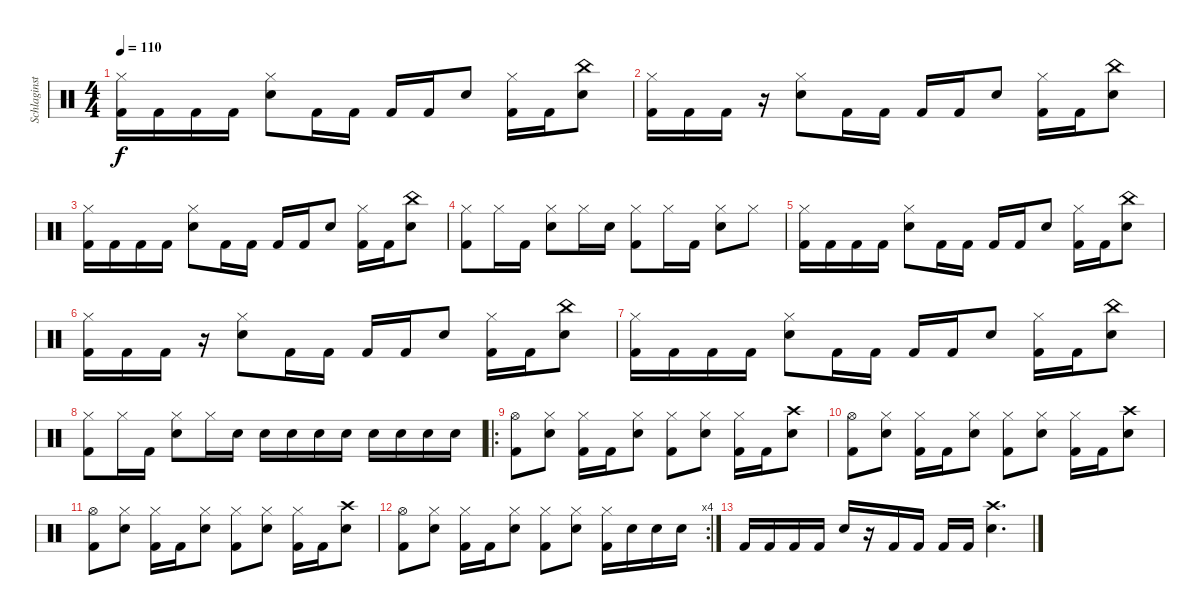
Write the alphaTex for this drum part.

\track ("Schlaginstrumente - Auswahl" "Schlaginst") {instrument percussion}
\staff {score}
\articulation defaults
\ts (4 4)
\tempo 110
\clef neutral
\ks c
("Hi-Hat (closed)" "Kick (hit) 2").16{dy f} "Kick (hit) 2".16 "Kick (hit) 2".16 "Kick (hit) 2".16 ("Hi-Hat (closed)" "Snare (hit) 2").8 "Kick (hit) 2".16 "Kick (hit) 2".16 "Kick (hit) 2".16 "Kick (hit) 2".16 "Snare (hit) 2".8 ("Hi-Hat (closed)" "Kick (hit) 2").16 "Kick (hit) 2".16 ("China (hit)" "Snare (hit) 2").8 |
("Hi-Hat (closed)" "Kick (hit) 2").16 "Kick (hit) 2".16 "Kick (hit) 2".16 r.16 ("Hi-Hat (closed)" "Snare (hit) 2").8 "Kick (hit) 2".16 "Kick (hit) 2".16 "Kick (hit) 2".16 "Kick (hit) 2".16 "Snare (hit) 2".8 ("Hi-Hat (closed)" "Kick (hit) 2").16 "Kick (hit) 2".16 ("China (hit)" "Snare (hit) 2").8 |
("Hi-Hat (closed)" "Kick (hit) 2").16 "Kick (hit) 2".16 "Kick (hit) 2".16 "Kick (hit) 2".16 ("Hi-Hat (closed)" "Snare (hit) 2").8 "Kick (hit) 2".16 "Kick (hit) 2".16 "Kick (hit) 2".16 "Kick (hit) 2".16 "Snare (hit) 2".8 ("Hi-Hat (closed)" "Kick (hit) 2").16 "Kick (hit) 2".16 ("China (hit)" "Snare (hit) 2").8 |
("Hi-Hat (closed)" "Kick (hit) 2").8 "Hi-Hat (closed)".16 "Kick (hit) 2".16 ("Hi-Hat (closed)" "Snare (hit) 2").8 "Hi-Hat (closed)".16 "Snare (hit) 2".16 ("Hi-Hat (closed)" "Kick (hit) 2").8 "Hi-Hat (closed)".16 "Kick (hit) 2".16 ("Hi-Hat (closed)" "Snare (hit) 2").8 "Hi-Hat (closed)".8 |
("Hi-Hat (closed)" "Kick (hit) 2").16 "Kick (hit) 2".16 "Kick (hit) 2".16 "Kick (hit) 2".16 ("Hi-Hat (closed)" "Snare (hit) 2").8 "Kick (hit) 2".16 "Kick (hit) 2".16 "Kick (hit) 2".16 "Kick (hit) 2".16 "Snare (hit) 2".8 ("Hi-Hat (closed)" "Kick (hit) 2").16 "Kick (hit) 2".16 ("China (hit)" "Snare (hit) 2").8 |
("Hi-Hat (closed)" "Kick (hit) 2").16 "Kick (hit) 2".16 "Kick (hit) 2".16 r.16 ("Hi-Hat (closed)" "Snare (hit) 2").8 "Kick (hit) 2".16 "Kick (hit) 2".16 "Kick (hit) 2".16 "Kick (hit) 2".16 "Snare (hit) 2".8 ("Hi-Hat (closed)" "Kick (hit) 2").16 "Kick (hit) 2".16 ("China (hit)" "Snare (hit) 2").8 |
("Hi-Hat (closed)" "Kick (hit) 2").16 "Kick (hit) 2".16 "Kick (hit) 2".16 "Kick (hit) 2".16 ("Hi-Hat (closed)" "Snare (hit) 2").8 "Kick (hit) 2".16 "Kick (hit) 2".16 "Kick (hit) 2".16 "Kick (hit) 2".16 "Snare (hit) 2".8 ("Hi-Hat (closed)" "Kick (hit) 2").16 "Kick (hit) 2".16 ("China (hit)" "Snare (hit) 2").8 |
("Hi-Hat (closed)" "Kick (hit) 2").8 "Hi-Hat (closed)".16 "Kick (hit) 2".16 ("Hi-Hat (closed)" "Snare (hit) 2").8 "Hi-Hat (closed)".16 "Snare (hit) 2".16 "Snare (hit) 2".16 "Snare (hit) 2".16 "Snare (hit) 2".16 "Snare (hit) 2".16 "Snare (hit) 2".16 "Snare (hit) 2".16 "Snare (hit) 2".16 "Snare (hit) 2".16 |
\ro
("Hi-Hat (open)" "Kick (hit) 2").8 ("Hi-Hat (closed)" "Snare (hit) 2").8 ("Hi-Hat (closed)" "Kick (hit) 2").16 "Kick (hit) 2".16 ("Hi-Hat (closed)" "Snare (hit) 2").8 ("Hi-Hat (closed)" "Kick (hit) 2").8 ("Hi-Hat (closed)" "Snare (hit) 2").8 ("Hi-Hat (closed)" "Kick (hit) 2").16 "Kick (hit) 2".16 ("Crash high (hit)" "Snare (hit) 2").8 |
("Hi-Hat (open)" "Kick (hit) 2").8 ("Hi-Hat (closed)" "Snare (hit) 2").8 ("Hi-Hat (closed)" "Kick (hit) 2").16 "Kick (hit) 2".16 ("Hi-Hat (closed)" "Snare (hit) 2").8 ("Hi-Hat (closed)" "Kick (hit) 2").8 ("Hi-Hat (closed)" "Snare (hit) 2").8 ("Hi-Hat (closed)" "Kick (hit) 2").16 "Kick (hit) 2".16 ("Crash high (hit)" "Snare (hit) 2").8 |
("Hi-Hat (open)" "Kick (hit) 2").8 ("Hi-Hat (closed)" "Snare (hit) 2").8 ("Hi-Hat (closed)" "Kick (hit) 2").16 "Kick (hit) 2".16 ("Hi-Hat (closed)" "Snare (hit) 2").8 ("Hi-Hat (closed)" "Kick (hit) 2").8 ("Hi-Hat (closed)" "Snare (hit) 2").8 ("Hi-Hat (closed)" "Kick (hit) 2").16 "Kick (hit) 2".16 ("Crash high (hit)" "Snare (hit) 2").8 |
\rc 4
("Hi-Hat (open)" "Kick (hit) 2").8 ("Hi-Hat (closed)" "Snare (hit) 2").8 ("Hi-Hat (closed)" "Kick (hit) 2").16 "Kick (hit) 2".16 ("Hi-Hat (closed)" "Snare (hit) 2").8 ("Hi-Hat (closed)" "Kick (hit) 2").8 ("Hi-Hat (closed)" "Snare (hit) 2").8 ("Hi-Hat (closed)" "Kick (hit) 2").16 "Snare (hit) 2".16 "Snare (hit) 2".16 "Snare (hit) 2".16 |
"Kick (hit) 2".16 "Kick (hit) 2".16 "Kick (hit) 2".16 "Kick (hit) 2".16 "Snare (hit) 2".16 r.16 "Kick (hit) 2".16 "Kick (hit) 2".16 "Kick (hit) 2".16 "Kick (hit) 2".16 ("Crash high (hit)" "Snare (hit) 2").4{d}
